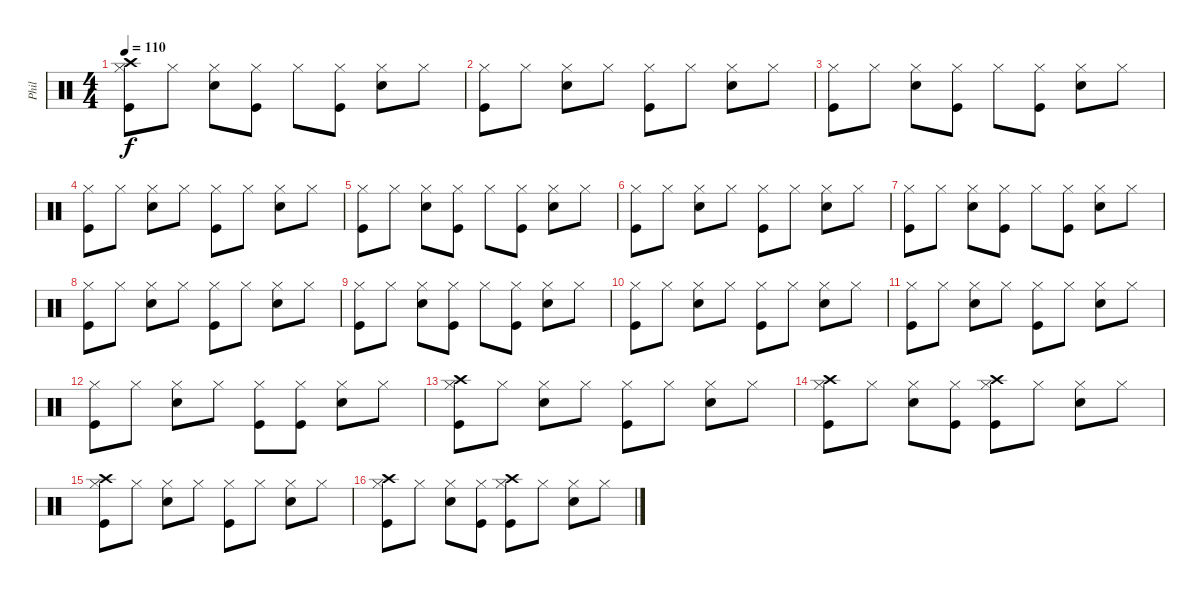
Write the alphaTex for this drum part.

\track ("Phil" "Phil") {instrument percussion}
\staff {score}
\articulation defaults
\ts (4 4)
\tempo 110
\clef neutral
\ks c
("Hi-Hat (closed)" "Crash high (hit)" "Kick (hit)").8{dy f} "Hi-Hat (closed)".8 ("Hi-Hat (closed)" "Snare (hit) 2").8 ("Hi-Hat (closed)" "Kick (hit)").8 "Hi-Hat (closed)".8 ("Hi-Hat (closed)" "Kick (hit)").8 ("Hi-Hat (closed)" "Snare (hit) 2").8 "Hi-Hat (closed)".8 |
("Hi-Hat (closed)" "Kick (hit)").8 "Hi-Hat (closed)".8 ("Hi-Hat (closed)" "Snare (hit) 2").8 "Hi-Hat (closed)".8 ("Hi-Hat (closed)" "Kick (hit)").8 "Hi-Hat (closed)".8 ("Hi-Hat (closed)" "Snare (hit) 2").8 "Hi-Hat (closed)".8 |
("Hi-Hat (closed)" "Kick (hit)").8 "Hi-Hat (closed)".8 ("Hi-Hat (closed)" "Snare (hit) 2").8 ("Hi-Hat (closed)" "Kick (hit)").8 "Hi-Hat (closed)".8 ("Hi-Hat (closed)" "Kick (hit)").8 ("Hi-Hat (closed)" "Snare (hit) 2").8 "Hi-Hat (closed)".8 |
("Hi-Hat (closed)" "Kick (hit)").8 "Hi-Hat (closed)".8 ("Hi-Hat (closed)" "Snare (hit) 2").8 "Hi-Hat (closed)".8 ("Hi-Hat (closed)" "Kick (hit)").8 "Hi-Hat (closed)".8 ("Hi-Hat (closed)" "Snare (hit) 2").8 "Hi-Hat (closed)".8 |
("Hi-Hat (closed)" "Kick (hit)").8 "Hi-Hat (closed)".8 ("Hi-Hat (closed)" "Snare (hit) 2").8 ("Hi-Hat (closed)" "Kick (hit)").8 "Hi-Hat (closed)".8 ("Hi-Hat (closed)" "Kick (hit)").8 ("Hi-Hat (closed)" "Snare (hit) 2").8 "Hi-Hat (closed)".8 |
("Hi-Hat (closed)" "Kick (hit)").8 "Hi-Hat (closed)".8 ("Hi-Hat (closed)" "Snare (hit) 2").8 "Hi-Hat (closed)".8 ("Hi-Hat (closed)" "Kick (hit)").8 "Hi-Hat (closed)".8 ("Hi-Hat (closed)" "Snare (hit) 2").8 "Hi-Hat (closed)".8 |
("Hi-Hat (closed)" "Kick (hit)").8 "Hi-Hat (closed)".8 ("Hi-Hat (closed)" "Snare (hit) 2").8 ("Hi-Hat (closed)" "Kick (hit)").8 "Hi-Hat (closed)".8 ("Hi-Hat (closed)" "Kick (hit)").8 ("Hi-Hat (closed)" "Snare (hit) 2").8 "Hi-Hat (closed)".8 |
("Hi-Hat (closed)" "Kick (hit)").8 "Hi-Hat (closed)".8 ("Hi-Hat (closed)" "Snare (hit) 2").8 "Hi-Hat (closed)".8 ("Hi-Hat (closed)" "Kick (hit)").8 "Hi-Hat (closed)".8 ("Hi-Hat (closed)" "Snare (hit) 2").8 "Hi-Hat (closed)".8 |
("Hi-Hat (closed)" "Kick (hit)").8 "Hi-Hat (closed)".8 ("Hi-Hat (closed)" "Snare (hit) 2").8 ("Hi-Hat (closed)" "Kick (hit)").8 "Hi-Hat (closed)".8 ("Hi-Hat (closed)" "Kick (hit)").8 ("Hi-Hat (closed)" "Snare (hit) 2").8 "Hi-Hat (closed)".8 |
("Hi-Hat (closed)" "Kick (hit)").8 "Hi-Hat (closed)".8 ("Hi-Hat (closed)" "Snare (hit) 2").8 "Hi-Hat (closed)".8 ("Hi-Hat (closed)" "Kick (hit)").8 "Hi-Hat (closed)".8 ("Hi-Hat (closed)" "Snare (hit) 2").8 "Hi-Hat (closed)".8 |
("Hi-Hat (closed)" "Kick (hit)").8 "Hi-Hat (closed)".8 ("Hi-Hat (closed)" "Snare (hit) 2").8 "Hi-Hat (closed)".8 ("Hi-Hat (closed)" "Kick (hit)").8 "Hi-Hat (closed)".8 ("Hi-Hat (closed)" "Snare (hit) 2").8 "Hi-Hat (closed)".8 |
("Hi-Hat (closed)" "Kick (hit)").8 "Hi-Hat (closed)".8 ("Hi-Hat (closed)" "Snare (hit) 2").8 "Hi-Hat (closed)".8 ("Hi-Hat (closed)" "Kick (hit)").8 ("Hi-Hat (closed)" "Kick (hit)").8 ("Hi-Hat (closed)" "Snare (hit) 2").8 "Hi-Hat (closed)".8 |
("Hi-Hat (closed)" "Crash high (hit)" "Kick (hit)").8 "Hi-Hat (closed)".8 ("Hi-Hat (closed)" "Snare (hit) 2").8 "Hi-Hat (closed)".8 ("Hi-Hat (closed)" "Kick (hit)").8 "Hi-Hat (closed)".8 ("Hi-Hat (closed)" "Snare (hit) 2").8 "Hi-Hat (closed)".8 |
("Hi-Hat (closed)" "Crash high (hit)" "Kick (hit)").8 "Hi-Hat (closed)".8 ("Hi-Hat (closed)" "Snare (hit) 2").8 ("Hi-Hat (closed)" "Kick (hit)").8 ("Hi-Hat (closed)" "Crash high (hit)" "Kick (hit)").8 "Hi-Hat (closed)".8 ("Hi-Hat (closed)" "Snare (hit) 2").8 "Hi-Hat (closed)".8 |
("Hi-Hat (closed)" "Crash high (hit)" "Kick (hit)").8 "Hi-Hat (closed)".8 ("Hi-Hat (closed)" "Snare (hit) 2").8 "Hi-Hat (closed)".8 ("Hi-Hat (closed)" "Kick (hit)").8 "Hi-Hat (closed)".8 ("Hi-Hat (closed)" "Snare (hit) 2").8 "Hi-Hat (closed)".8 |
("Hi-Hat (closed)" "Crash high (hit)" "Kick (hit)").8 "Hi-Hat (closed)".8 ("Hi-Hat (closed)" "Snare (hit) 2").8 ("Hi-Hat (closed)" "Kick (hit)").8 ("Hi-Hat (closed)" "Crash high (hit)" "Kick (hit)").8 "Hi-Hat (closed)".8 ("Hi-Hat (closed)" "Snare (hit) 2").8 "Hi-Hat (closed)".8
